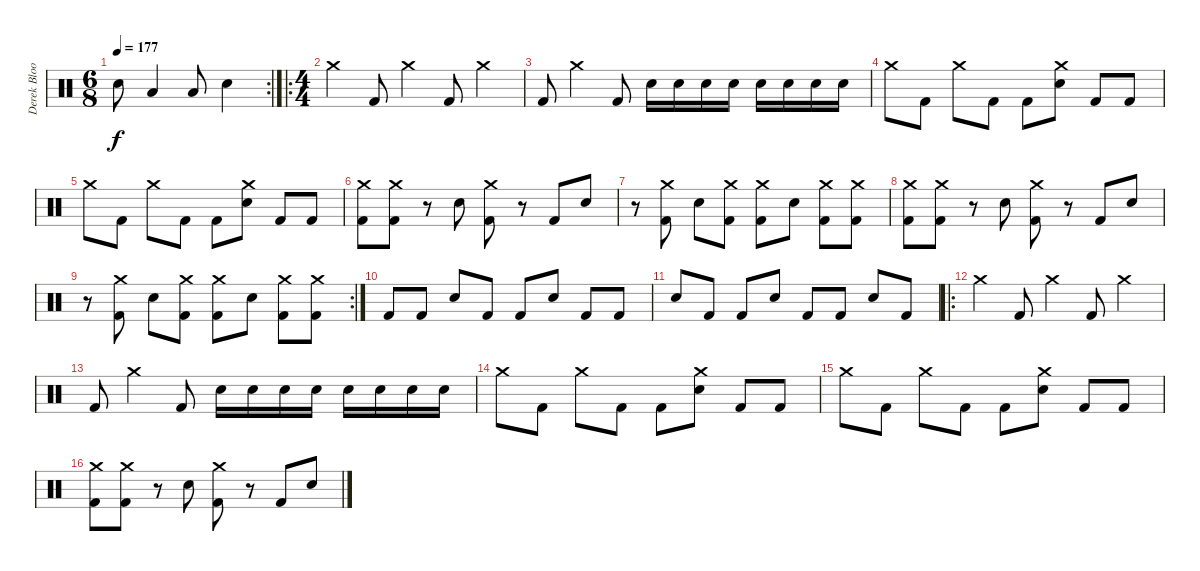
\track ("Derek Bloom" "Derek Bloo") {instrument percussion}
\staff {score}
\articulation defaults
\rc 2
\ts (6 8)
\tempo 177
\clef neutral
\ks c "Electric Snare (hit)".8{dy f} "Low Floor Tom (hit)".4 "Low Floor Tom (hit)".8 "Electric Snare (hit)".4
|
\ro
\ts (4 4)
"Crash medium (hit)".4 "Kick (hit) 2".8 "Crash medium (hit)".4 "Kick (hit) 2".8 "Crash medium (hit)".4 |
"Kick (hit) 2".8 "Crash medium (hit)".4 "Kick (hit) 2".8 "Electric Snare (hit)".16 "Electric Snare (hit)".16 "Electric Snare (hit)".16 "Electric Snare (hit)".16 "Electric Snare (hit)".16 "Electric Snare (hit)".16 "Electric Snare (hit)".16 "Electric Snare (hit)".16 |
"Crash medium (hit)".8 "Kick (hit) 2".8 "Crash medium (hit)".8 "Kick (hit) 2".8 "Kick (hit) 2".8 ("Crash medium (hit)" "Electric Snare (hit)").8 "Kick (hit) 2".8 "Kick (hit) 2".8 |
"Crash medium (hit)".8 "Kick (hit) 2".8 "Crash medium (hit)".8 "Kick (hit) 2".8 "Kick (hit) 2".8 ("Crash medium (hit)" "Electric Snare (hit)").8 "Kick (hit) 2".8 "Kick (hit) 2".8 |
("Crash medium (hit)" "Kick (hit) 2").8 ("Crash medium (hit)" "Kick (hit) 2").8 r.8 "Electric Snare (hit)".8 ("Crash medium (hit)" "Kick (hit) 2").8 r.8 "Kick (hit) 2".8 "Electric Snare (hit)".8 |
r.8 ("Crash medium (hit)" "Kick (hit) 2").8 "Electric Snare (hit)".8 ("Crash medium (hit)" "Kick (hit) 2").8 ("Crash medium (hit)" "Kick (hit) 2").8 "Electric Snare (hit)".8 ("Crash medium (hit)" "Kick (hit) 2").8 ("Crash medium (hit)" "Kick (hit) 2").8 |
("Crash medium (hit)" "Kick (hit) 2").8 ("Crash medium (hit)" "Kick (hit) 2").8 r.8 "Electric Snare (hit)".8 ("Crash medium (hit)" "Kick (hit) 2").8 r.8 "Kick (hit) 2".8 "Electric Snare (hit)".8 |
\rc 2
r.8 ("Crash medium (hit)" "Kick (hit) 2").8 "Electric Snare (hit)".8 ("Crash medium (hit)" "Kick (hit) 2").8 ("Crash medium (hit)" "Kick (hit) 2").8 "Electric Snare (hit)".8 ("Crash medium (hit)" "Kick (hit) 2").8 ("Crash medium (hit)" "Kick (hit) 2").8 |
"Kick (hit) 2".8 "Kick (hit) 2".8 "Electric Snare (hit)".8 "Kick (hit) 2".8 "Kick (hit) 2".8 "Electric Snare (hit)".8 "Kick (hit) 2".8 "Kick (hit) 2".8 |
"Electric Snare (hit)".8 "Kick (hit) 2".8 "Kick (hit) 2".8 "Electric Snare (hit)".8 "Kick (hit) 2".8 "Kick (hit) 2".8 "Electric Snare (hit)".8 "Kick (hit) 2".8 |
\ro "Crash medium (hit)".4 "Kick (hit) 2".8 "Crash medium (hit)".4 "Kick (hit) 2".8 "Crash medium (hit)".4
|
"Kick (hit) 2".8 "Crash medium (hit)".4 "Kick (hit) 2".8 "Electric Snare (hit)".16 "Electric Snare (hit)".16 "Electric Snare (hit)".16 "Electric Snare (hit)".16 "Electric Snare (hit)".16 "Electric Snare (hit)".16 "Electric Snare (hit)".16 "Electric Snare (hit)".16 |
"Crash medium (hit)".8 "Kick (hit) 2".8 "Crash medium (hit)".8 "Kick (hit) 2".8 "Kick (hit) 2".8 ("Crash medium (hit)" "Electric Snare (hit)").8 "Kick (hit) 2".8 "Kick (hit) 2".8 |
"Crash medium (hit)".8 "Kick (hit) 2".8 "Crash medium (hit)".8 "Kick (hit) 2".8 "Kick (hit) 2".8 ("Crash medium (hit)" "Electric Snare (hit)").8 "Kick (hit) 2".8 "Kick (hit) 2".8 |
("Crash medium (hit)" "Kick (hit) 2").8 ("Crash medium (hit)" "Kick (hit) 2").8 r.8 "Electric Snare (hit)".8 ("Crash medium (hit)" "Kick (hit) 2").8 r.8 "Kick (hit) 2".8 "Electric Snare (hit)".8
